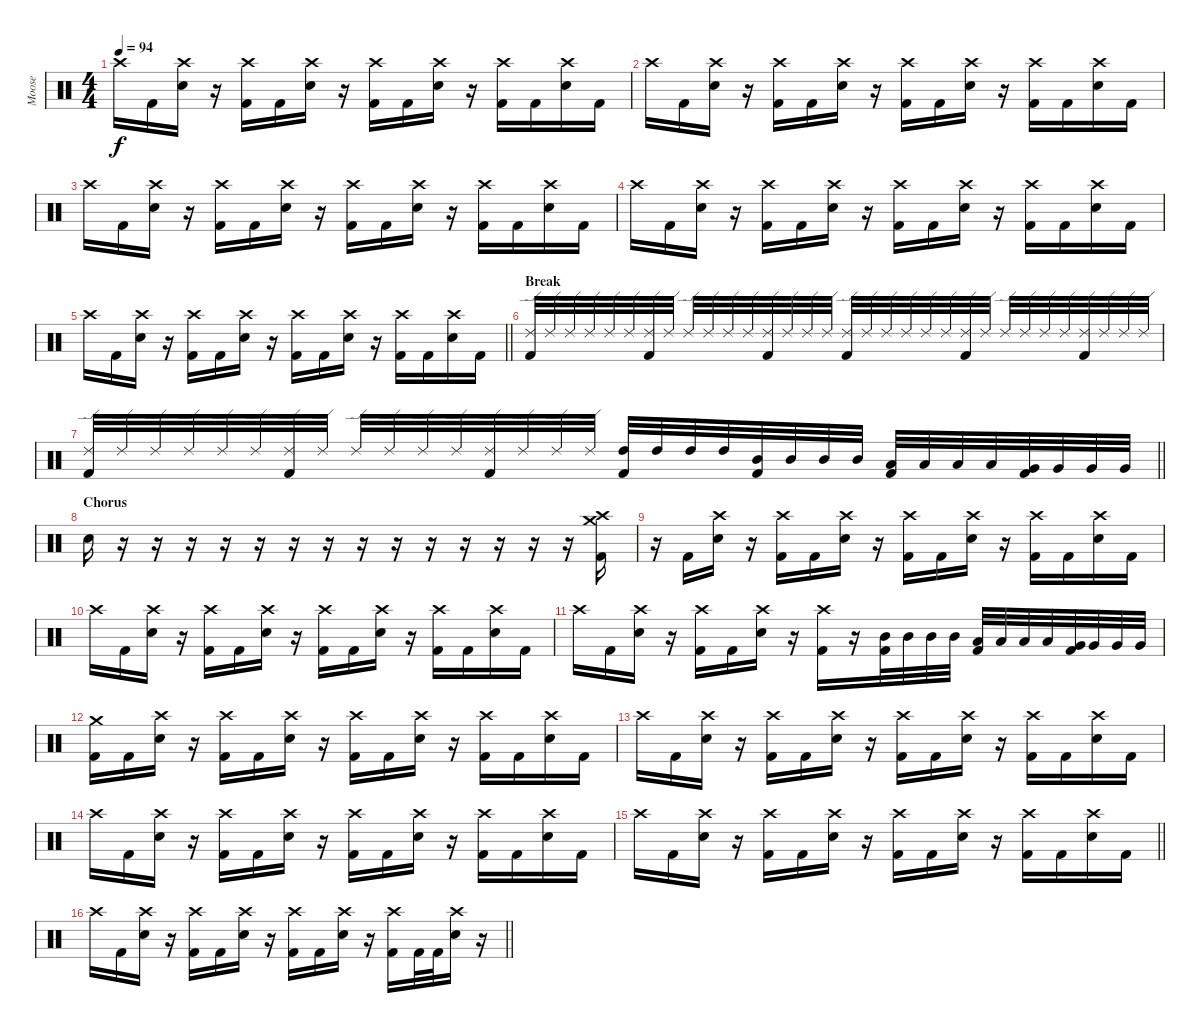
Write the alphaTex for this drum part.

\track ("Moose" "Moose") {instrument percussion}
\staff {score}
\articulation defaults
\ts (4 4)
\tempo 94
\clef neutral
\ks c "Crash high (hit)".16{dy f} "Kick (hit) 2".16
("Crash high (hit)" "Electric Snare (hit)").16 r.16 ("Crash high (hit)" "Kick (hit) 2").16 "Kick (hit) 2".16 ("Crash high (hit)" "Electric Snare (hit)").16 r.16 ("Crash high (hit)" "Kick (hit) 2").16 "Kick (hit) 2".16 ("Crash high (hit)" "Electric Snare (hit)").16 r.16 ("Crash high (hit)" "Kick (hit) 2").16 "Kick (hit) 2".16 ("Crash high (hit)" "Electric Snare (hit)").16 "Kick (hit) 2".16 |
"Crash high (hit)".16 "Kick (hit) 2".16 ("Crash high (hit)" "Electric Snare (hit)").16 r.16 ("Crash high (hit)" "Kick (hit) 2").16 "Kick (hit) 2".16 ("Crash high (hit)" "Electric Snare (hit)").16 r.16 ("Crash high (hit)" "Kick (hit) 2").16 "Kick (hit) 2".16 ("Crash high (hit)" "Electric Snare (hit)").16 r.16 ("Crash high (hit)" "Kick (hit) 2").16 "Kick (hit) 2".16 ("Crash high (hit)" "Electric Snare (hit)").16 "Kick (hit) 2".16 |
"Crash high (hit)".16 "Kick (hit) 2".16 ("Crash high (hit)" "Electric Snare (hit)").16 r.16 ("Crash high (hit)" "Kick (hit) 2").16 "Kick (hit) 2".16 ("Crash high (hit)" "Electric Snare (hit)").16 r.16 ("Crash high (hit)" "Kick (hit) 2").16 "Kick (hit) 2".16 ("Crash high (hit)" "Electric Snare (hit)").16 r.16 ("Crash high (hit)" "Kick (hit) 2").16 "Kick (hit) 2".16 ("Crash high (hit)" "Electric Snare (hit)").16 "Kick (hit) 2".16 |
"Crash high (hit)".16 "Kick (hit) 2".16 ("Crash high (hit)" "Electric Snare (hit)").16 r.16 ("Crash high (hit)" "Kick (hit) 2").16 "Kick (hit) 2".16 ("Crash high (hit)" "Electric Snare (hit)").16 r.16 ("Crash high (hit)" "Kick (hit) 2").16 "Kick (hit) 2".16 ("Crash high (hit)" "Electric Snare (hit)").16 r.16 ("Crash high (hit)" "Kick (hit) 2").16 "Kick (hit) 2".16 ("Crash high (hit)" "Electric Snare (hit)").16 "Kick (hit) 2".16 |
\barLineRight lightlight "Crash high (hit)".16 "Kick (hit) 2".16
("Crash high (hit)" "Electric Snare (hit)").16 r.16 ("Crash high (hit)" "Kick (hit) 2").16 "Kick (hit) 2".16 ("Crash high (hit)" "Electric Snare (hit)").16 r.16 ("Crash high (hit)" "Kick (hit) 2").16 "Kick (hit) 2".16 ("Crash high (hit)" "Electric Snare (hit)").16 r.16 ("Crash high (hit)" "Kick (hit) 2").16 "Kick (hit) 2".16 ("Crash high (hit)" "Electric Snare (hit)").16 "Kick (hit) 2".16 |
\section ("" "Break")
("Ride (edge) 2" "Kick (hit) 2").32 "Ride (edge) 2".32 "Ride (edge) 2".32 "Ride (edge) 2".32 "Ride (edge) 2".32 "Ride (edge) 2".32 ("Ride (edge) 2" "Kick (hit) 2").32 "Ride (edge) 2".32 "Ride (edge) 2".32 "Ride (edge) 2".32 "Ride (edge) 2".32 "Ride (edge) 2".32 ("Ride (edge) 2" "Kick (hit) 2").32 "Ride (edge) 2".32 "Ride (edge) 2".32 "Ride (edge) 2".32 ("Ride (edge) 2" "Kick (hit) 2").32 "Ride (edge) 2".32 "Ride (edge) 2".32 "Ride (edge) 2".32 "Ride (edge) 2".32 "Ride (edge) 2".32 ("Ride (edge) 2" "Kick (hit) 2").32 "Ride (edge) 2".32 "Ride (edge) 2".32 "Ride (edge) 2".32 "Ride (edge) 2".32 "Ride (edge) 2".32 ("Ride (edge) 2" "Kick (hit) 2").32 "Ride (edge) 2".32 "Ride (edge) 2".32 "Ride (edge) 2".32 |
\barLineRight lightlight
("Ride (edge) 2" "Kick (hit) 2").32 "Ride (edge) 2".32 "Ride (edge) 2".32 "Ride (edge) 2".32 "Ride (edge) 2".32 "Ride (edge) 2".32 ("Ride (edge) 2" "Kick (hit) 2").32 "Ride (edge) 2".32 "Ride (edge) 2".32 "Ride (edge) 2".32 "Ride (edge) 2".32 "Ride (edge) 2".32 ("Ride (edge) 2" "Kick (hit) 2").32 "Ride (edge) 2".32 "Ride (edge) 2".32 "Ride (edge) 2".32 ("High Tom (hit)" "Kick (hit) 2").32 "High Tom (hit)".32 "High Tom (hit)".32 "High Tom (hit)".32 ("Mid Tom (hit)" "Kick (hit) 2").32 "Mid Tom (hit)".32 "Mid Tom (hit)".32 "Mid Tom (hit)".32 ("Low Tom (hit)" "Kick (hit) 2").32 "Low Tom (hit)".32 "Low Tom (hit)".32 "Low Tom (hit)".32 ("Very Low Tom (hit)" "Kick (hit) 2").32 "Very Low Tom (hit)".32 "Very Low Tom (hit)".32 "Very Low Tom (hit)".32 |
\section ("" "Chorus")
"Electric Snare (hit)".16 r.16 r.16 r.16 r.16 r.16 r.16 r.16 r.16 r.16 r.16 r.16 r.16 r.16 r.16 ("Crash medium (hit)" "Crash high (hit)" "Kick (hit) 2").16 |
r.16 "Kick (hit) 2".16 ("Crash high (hit)" "Electric Snare (hit)").16 r.16 ("Crash high (hit)" "Kick (hit) 2").16 "Kick (hit) 2".16 ("Crash high (hit)" "Electric Snare (hit)").16 r.16 ("Crash high (hit)" "Kick (hit) 2").16 "Kick (hit) 2".16 ("Crash high (hit)" "Electric Snare (hit)").16 r.16 ("Crash high (hit)" "Kick (hit) 2").16 "Kick (hit) 2".16 ("Crash high (hit)" "Electric Snare (hit)").16 "Kick (hit) 2".16 |
"Crash high (hit)".16 "Kick (hit) 2".16 ("Crash high (hit)" "Electric Snare (hit)").16 r.16 ("Crash high (hit)" "Kick (hit) 2").16 "Kick (hit) 2".16 ("Crash high (hit)" "Electric Snare (hit)").16 r.16 ("Crash high (hit)" "Kick (hit) 2").16 "Kick (hit) 2".16 ("Crash high (hit)" "Electric Snare (hit)").16 r.16 ("Crash high (hit)" "Kick (hit) 2").16 "Kick (hit) 2".16 ("Crash high (hit)" "Electric Snare (hit)").16 "Kick (hit) 2".16 |
"Crash high (hit)".16 "Kick (hit) 2".16 ("Crash high (hit)" "Electric Snare (hit)").16 r.16 ("Crash high (hit)" "Kick (hit) 2").16 "Kick (hit) 2".16 ("Crash high (hit)" "Electric Snare (hit)").16 r.16 ("Crash high (hit)" "Kick (hit) 2").16 r.16 ("Mid Tom (hit)" "Kick (hit) 2").32 "Mid Tom (hit)".32 "Mid Tom (hit)".32 "Mid Tom (hit)".32 ("Low Tom (hit)" "Kick (hit) 2").32 "Low Tom (hit)".32 "Low Tom (hit)".32 "Low Tom (hit)".32 ("Very Low Tom (hit)" "Kick (hit) 2").32 "Very Low Tom (hit)".32 "Very Low Tom (hit)".32 "Very Low Tom (hit)".32 |
("Crash medium (hit)" "Kick (hit) 2").16 "Kick (hit) 2".16 ("Crash high (hit)" "Electric Snare (hit)").16 r.16 ("Crash high (hit)" "Kick (hit) 2").16 "Kick (hit) 2".16 ("Crash high (hit)" "Electric Snare (hit)").16 r.16 ("Crash high (hit)" "Kick (hit) 2").16 "Kick (hit) 2".16 ("Crash high (hit)" "Electric Snare (hit)").16 r.16 ("Crash high (hit)" "Kick (hit) 2").16 "Kick (hit) 2".16 ("Crash high (hit)" "Electric Snare (hit)").16 "Kick (hit) 2".16 |
"Crash high (hit)".16 "Kick (hit) 2".16 ("Crash high (hit)" "Electric Snare (hit)").16 r.16 ("Crash high (hit)" "Kick (hit) 2").16 "Kick (hit) 2".16 ("Crash high (hit)" "Electric Snare (hit)").16 r.16 ("Crash high (hit)" "Kick (hit) 2").16 "Kick (hit) 2".16 ("Crash high (hit)" "Electric Snare (hit)").16 r.16 ("Crash high (hit)" "Kick (hit) 2").16 "Kick (hit) 2".16 ("Crash high (hit)" "Electric Snare (hit)").16 "Kick (hit) 2".16 |
"Crash high (hit)".16 "Kick (hit) 2".16 ("Crash high (hit)" "Electric Snare (hit)").16 r.16 ("Crash high (hit)" "Kick (hit) 2").16 "Kick (hit) 2".16 ("Crash high (hit)" "Electric Snare (hit)").16 r.16 ("Crash high (hit)" "Kick (hit) 2").16 "Kick (hit) 2".16 ("Crash high (hit)" "Electric Snare (hit)").16 r.16 ("Crash high (hit)" "Kick (hit) 2").16 "Kick (hit) 2".16 ("Crash high (hit)" "Electric Snare (hit)").16 "Kick (hit) 2".16 |
\barLineRight lightlight "Crash high (hit)".16 "Kick (hit) 2".16
("Crash high (hit)" "Electric Snare (hit)").16 r.16 ("Crash high (hit)" "Kick (hit) 2").16 "Kick (hit) 2".16 ("Crash high (hit)" "Electric Snare (hit)").16 r.16 ("Crash high (hit)" "Kick (hit) 2").16 "Kick (hit) 2".16 ("Crash high (hit)" "Electric Snare (hit)").16 r.16 ("Crash high (hit)" "Kick (hit) 2").16 "Kick (hit) 2".16 ("Crash high (hit)" "Electric Snare (hit)").16 "Kick (hit) 2".16 |
\barLineRight lightlight "Crash high (hit)".16 "Kick (hit) 2".16
("Crash high (hit)" "Electric Snare (hit)").16 r.16 ("Crash high (hit)" "Kick (hit) 2").16 "Kick (hit) 2".16 ("Crash high (hit)" "Electric Snare (hit)").16 r.16 ("Crash high (hit)" "Kick (hit) 2").16 "Kick (hit) 2".16 ("Crash high (hit)" "Electric Snare (hit)").16 r.16 ("Crash high (hit)" "Kick (hit) 2").16 "Kick (hit) 2".32 "Kick (hit) 2".32 ("Crash high (hit)" "Electric Snare (hit)").16 r.16
